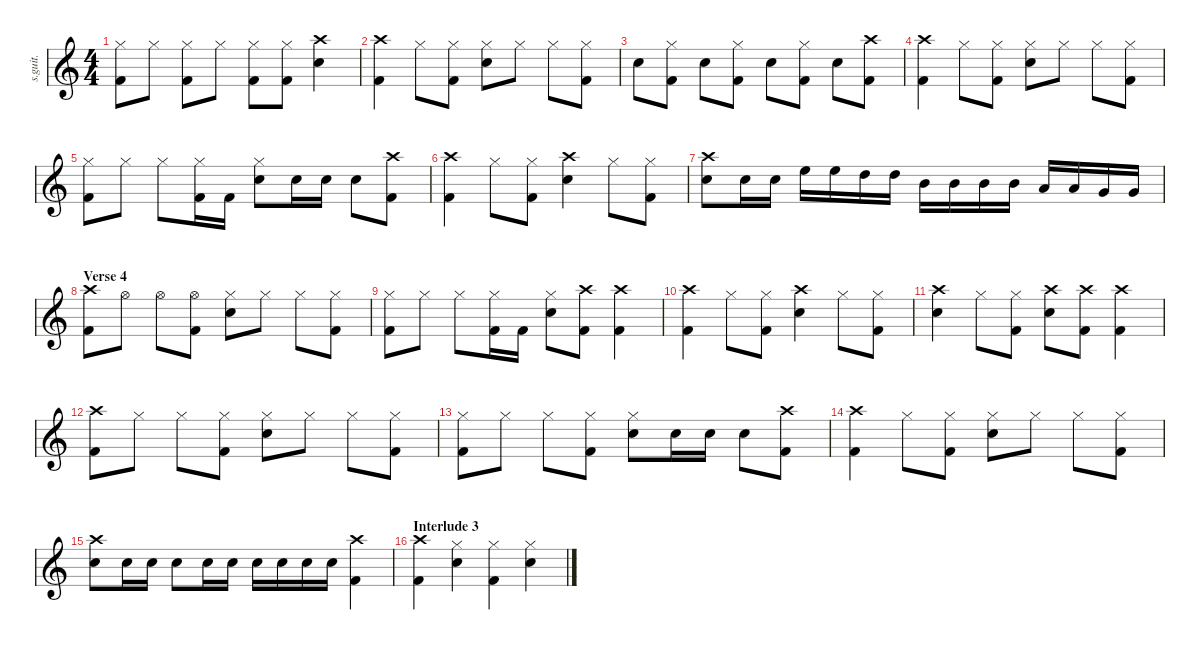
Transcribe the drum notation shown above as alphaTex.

\defaultSystemsLayout 4
\hideDynamics
\bracketExtendMode nobrackets
\track ("Lars Ulrich - Drumzzz" "s.guit.") {instrument percussion}
\staff {score}
\articulation defaults
\ts (4 4)
\tempo (142 hide)
\clef g2
\ks c
("Hi-Hat (closed)" "Kick (hit) 2").8{lyrics (0 "") lyrics (1 "") lyrics (2 "") lyrics (3 "") lyrics (4 "") dy f} "Hi-Hat (closed)".8{lyrics (0 "") lyrics (1 "") lyrics (2 "") lyrics (3 "") lyrics (4 "")} ("Hi-Hat (closed)" "Kick (hit) 2").8{lyrics (0 "") lyrics (1 "") lyrics (2 "") lyrics (3 "") lyrics (4 "")} "Hi-Hat (closed)".8{lyrics (0 "") lyrics (1 "") lyrics (2 "") lyrics (3 "") lyrics (4 "")} ("Hi-Hat (closed)" "Kick (hit) 2").8{lyrics (0 "") lyrics (1 "") lyrics (2 "") lyrics (3 "") lyrics (4 "")} ("Hi-Hat (closed)" "Kick (hit) 2").8{lyrics (0 "") lyrics (1 "") lyrics (2 "") lyrics (3 "") lyrics (4 "")} ("Crash high (hit)" "Snare (hit) 2").4{lyrics (0 "") lyrics (1 "") lyrics (2 "") lyrics (3 "") lyrics (4 "")} |
("Crash high (hit)" "Kick (hit) 2").4{lyrics (0 "") lyrics (1 "") lyrics (2 "") lyrics (3 "") lyrics (4 "")} "Hi-Hat (closed)".8{lyrics (0 "") lyrics (1 "") lyrics (2 "") lyrics (3 "") lyrics (4 "")} ("Hi-Hat (closed)" "Kick (hit) 2").8{lyrics (0 "") lyrics (1 "") lyrics (2 "") lyrics (3 "") lyrics (4 "")} ("Hi-Hat (closed)" "Snare (hit) 2").8{lyrics (0 "") lyrics (1 "") lyrics (2 "") lyrics (3 "") lyrics (4 "")} "Hi-Hat (closed)".8{lyrics (0 "") lyrics (1 "") lyrics (2 "") lyrics (3 "") lyrics (4 "")} "Hi-Hat (closed)".8{lyrics (0 "") lyrics (1 "") lyrics (2 "") lyrics (3 "") lyrics (4 "")} ("Hi-Hat (closed)" "Kick (hit) 2").8{lyrics (0 "") lyrics (1 "") lyrics (2 "") lyrics (3 "") lyrics (4 "")} |
"Snare (hit) 2".8{lyrics (0 "") lyrics (1 "") lyrics (2 "") lyrics (3 "") lyrics (4 "")} ("Hi-Hat (closed)" "Kick (hit) 2").8{lyrics (0 "") lyrics (1 "") lyrics (2 "") lyrics (3 "") lyrics (4 "")} "Snare (hit) 2".8{lyrics (0 "") lyrics (1 "") lyrics (2 "") lyrics (3 "") lyrics (4 "")} ("Hi-Hat (closed)" "Kick (hit) 2").8{lyrics (0 "") lyrics (1 "") lyrics (2 "") lyrics (3 "") lyrics (4 "")} "Snare (hit) 2".8{lyrics (0 "") lyrics (1 "") lyrics (2 "") lyrics (3 "") lyrics (4 "")} ("Hi-Hat (closed)" "Kick (hit) 2").8{lyrics (0 "") lyrics (1 "") lyrics (2 "") lyrics (3 "") lyrics (4 "")} "Snare (hit) 2".8{lyrics (0 "") lyrics (1 "") lyrics (2 "") lyrics (3 "") lyrics (4 "")} ("Crash high (hit)" "Kick (hit) 2").8{lyrics (0 "") lyrics (1 "") lyrics (2 "") lyrics (3 "") lyrics (4 "")} |
("Crash high (hit)" "Kick (hit) 2").4{lyrics (0 "") lyrics (1 "") lyrics (2 "") lyrics (3 "") lyrics (4 "")} "Hi-Hat (closed)".8{lyrics (0 "") lyrics (1 "") lyrics (2 "") lyrics (3 "") lyrics (4 "")} ("Hi-Hat (closed)" "Kick (hit) 2").8{lyrics (0 "") lyrics (1 "") lyrics (2 "") lyrics (3 "") lyrics (4 "")} ("Hi-Hat (closed)" "Snare (hit) 2").8{lyrics (0 "") lyrics (1 "") lyrics (2 "") lyrics (3 "") lyrics (4 "")} "Hi-Hat (closed)".8{lyrics (0 "") lyrics (1 "") lyrics (2 "") lyrics (3 "") lyrics (4 "")} "Hi-Hat (closed)".8{lyrics (0 "") lyrics (1 "") lyrics (2 "") lyrics (3 "") lyrics (4 "")} ("Hi-Hat (closed)" "Kick (hit) 2").8{lyrics (0 "") lyrics (1 "") lyrics (2 "") lyrics (3 "") lyrics (4 "")} |
("Hi-Hat (closed)" "Kick (hit) 2").8{lyrics (0 "") lyrics (1 "") lyrics (2 "") lyrics (3 "") lyrics (4 "")} "Hi-Hat (closed)".8{lyrics (0 "") lyrics (1 "") lyrics (2 "") lyrics (3 "") lyrics (4 "")} "Hi-Hat (closed)".8{lyrics (0 "") lyrics (1 "") lyrics (2 "") lyrics (3 "") lyrics (4 "")} ("Hi-Hat (closed)" "Kick (hit) 2").16{lyrics (0 "") lyrics (1 "") lyrics (2 "") lyrics (3 "") lyrics (4 "")} "Kick (hit) 2".16{lyrics (0 "") lyrics (1 "") lyrics (2 "") lyrics (3 "") lyrics (4 "")} ("Hi-Hat (closed)" "Snare (hit) 2").8{lyrics (0 "") lyrics (1 "") lyrics (2 "") lyrics (3 "") lyrics (4 "")} "Snare (hit) 2".16{lyrics (0 "") lyrics (1 "") lyrics (2 "") lyrics (3 "") lyrics (4 "")} "Snare (hit) 2".16{lyrics (0 "") lyrics (1 "") lyrics (2 "") lyrics (3 "") lyrics (4 "")} "Snare (hit) 2".8{lyrics (0 "") lyrics (1 "") lyrics (2 "") lyrics (3 "") lyrics (4 "")} ("Crash high (hit)" "Kick (hit) 2").8{lyrics (0 "") lyrics (1 "") lyrics (2 "") lyrics (3 "") lyrics (4 "")} |
("Crash high (hit)" "Kick (hit) 2").4{lyrics (0 "") lyrics (1 "") lyrics (2 "") lyrics (3 "") lyrics (4 "")} "Hi-Hat (closed)".8{lyrics (0 "") lyrics (1 "") lyrics (2 "") lyrics (3 "") lyrics (4 "")} ("Hi-Hat (closed)" "Kick (hit) 2").8{lyrics (0 "") lyrics (1 "") lyrics (2 "") lyrics (3 "") lyrics (4 "")} ("Crash high (hit)" "Snare (hit) 2").4{lyrics (0 "") lyrics (1 "") lyrics (2 "") lyrics (3 "") lyrics (4 "")} "Hi-Hat (closed)".8{lyrics (0 "") lyrics (1 "") lyrics (2 "") lyrics (3 "") lyrics (4 "")} ("Hi-Hat (closed)" "Kick (hit) 2").8{lyrics (0 "") lyrics (1 "") lyrics (2 "") lyrics (3 "") lyrics (4 "")} |
("Crash high (hit)" "Snare (hit) 2").8{lyrics (0 "") lyrics (1 "") lyrics (2 "") lyrics (3 "") lyrics (4 "")} "Snare (hit) 2".16{lyrics (0 "") lyrics (1 "") lyrics (2 "") lyrics (3 "") lyrics (4 "")} "Snare (hit) 2".16{lyrics (0 "") lyrics (1 "") lyrics (2 "") lyrics (3 "") lyrics (4 "")} "High Floor Tom (hit)".16{lyrics (0 "") lyrics (1 "") lyrics (2 "") lyrics (3 "") lyrics (4 "")} "High Floor Tom (hit)".16{lyrics (0 "") lyrics (1 "") lyrics (2 "") lyrics (3 "") lyrics (4 "")} "High Tom (hit)".16{lyrics (0 "") lyrics (1 "") lyrics (2 "") lyrics (3 "") lyrics (4 "")} "High Tom (hit)".16{lyrics (0 "") lyrics (1 "") lyrics (2 "") lyrics (3 "") lyrics (4 "")} "Mid Tom (hit)".16{lyrics (0 "") lyrics (1 "") lyrics (2 "") lyrics (3 "") lyrics (4 "")} "Mid Tom (hit)".16{lyrics (0 "") lyrics (1 "") lyrics (2 "") lyrics (3 "") lyrics (4 "")} "Mid Tom (hit)".16{lyrics (0 "") lyrics (1 "") lyrics (2 "") lyrics (3 "") lyrics (4 "")} "Mid Tom (hit)".16{lyrics (0 "") lyrics (1 "") lyrics (2 "") lyrics (3 "") lyrics (4 "")} "Low Tom (hit)".16{lyrics (0 "") lyrics (1 "") lyrics (2 "") lyrics (3 "") lyrics (4 "")} "Low Tom (hit)".16{lyrics (0 "") lyrics (1 "") lyrics (2 "") lyrics (3 "") lyrics (4 "")} "Very Low Tom (hit)".16{lyrics (0 "") lyrics (1 "") lyrics (2 "") lyrics (3 "") lyrics (4 "")} "Very Low Tom (hit)".16{lyrics (0 "") lyrics (1 "") lyrics (2 "") lyrics (3 "") lyrics (4 "")} |
\section ("" "Verse 4")
("Crash high (hit)" "Kick (hit) 2").8{lyrics (0 "") lyrics (1 "") lyrics (2 "") lyrics (3 "") lyrics (4 "")} "Hi-Hat (open)".8{lyrics (0 "") lyrics (1 "") lyrics (2 "") lyrics (3 "") lyrics (4 "")} "Hi-Hat (open)".8{lyrics (0 "") lyrics (1 "") lyrics (2 "") lyrics (3 "") lyrics (4 "")} ("Hi-Hat (open)" "Kick (hit) 2").8{lyrics (0 "") lyrics (1 "") lyrics (2 "") lyrics (3 "") lyrics (4 "")} ("Hi-Hat (closed)" "Snare (hit) 2").8{lyrics (0 "") lyrics (1 "") lyrics (2 "") lyrics (3 "") lyrics (4 "")} "Hi-Hat (closed)".8{lyrics (0 "") lyrics (1 "") lyrics (2 "") lyrics (3 "") lyrics (4 "")} "Hi-Hat (closed)".8{lyrics (0 "") lyrics (1 "") lyrics (2 "") lyrics (3 "") lyrics (4 "")} ("Hi-Hat (closed)" "Kick (hit) 2").8{lyrics (0 "") lyrics (1 "") lyrics (2 "") lyrics (3 "") lyrics (4 "")} |
("Hi-Hat (closed)" "Kick (hit) 2").8{lyrics (0 "") lyrics (1 "") lyrics (2 "") lyrics (3 "") lyrics (4 "")} "Hi-Hat (closed)".8{lyrics (0 "") lyrics (1 "") lyrics (2 "") lyrics (3 "") lyrics (4 "")} "Hi-Hat (closed)".8{lyrics (0 "") lyrics (1 "") lyrics (2 "") lyrics (3 "") lyrics (4 "")} ("Hi-Hat (closed)" "Kick (hit) 2").16{lyrics (0 "") lyrics (1 "") lyrics (2 "") lyrics (3 "") lyrics (4 "")} "Kick (hit) 2".16{lyrics (0 "") lyrics (1 "") lyrics (2 "") lyrics (3 "") lyrics (4 "")} ("Hi-Hat (closed)" "Snare (hit) 2").8{lyrics (0 "") lyrics (1 "") lyrics (2 "") lyrics (3 "") lyrics (4 "")} ("Crash high (hit)" "Kick (hit) 2").8{lyrics (0 "") lyrics (1 "") lyrics (2 "") lyrics (3 "") lyrics (4 "")} ("Crash high (hit)" "Kick (hit) 2").4{lyrics (0 "") lyrics (1 "") lyrics (2 "") lyrics (3 "") lyrics (4 "")} |
("Crash high (hit)" "Kick (hit) 2").4{lyrics (0 "") lyrics (1 "") lyrics (2 "") lyrics (3 "") lyrics (4 "")} "Hi-Hat (closed)".8{lyrics (0 "") lyrics (1 "") lyrics (2 "") lyrics (3 "") lyrics (4 "")} ("Hi-Hat (closed)" "Kick (hit) 2").8{lyrics (0 "") lyrics (1 "") lyrics (2 "") lyrics (3 "") lyrics (4 "")} ("Crash high (hit)" "Snare (hit) 2").4{lyrics (0 "") lyrics (1 "") lyrics (2 "") lyrics (3 "") lyrics (4 "")} "Hi-Hat (closed)".8{lyrics (0 "") lyrics (1 "") lyrics (2 "") lyrics (3 "") lyrics (4 "")} ("Hi-Hat (closed)" "Kick (hit) 2").8{lyrics (0 "") lyrics (1 "") lyrics (2 "") lyrics (3 "") lyrics (4 "")} |
("Crash high (hit)" "Snare (hit) 2").4{lyrics (0 "") lyrics (1 "") lyrics (2 "") lyrics (3 "") lyrics (4 "")} "Hi-Hat (closed)".8{lyrics (0 "") lyrics (1 "") lyrics (2 "") lyrics (3 "") lyrics (4 "")} ("Hi-Hat (closed)" "Kick (hit) 2").8{lyrics (0 "") lyrics (1 "") lyrics (2 "") lyrics (3 "") lyrics (4 "")} ("Crash high (hit)" "Snare (hit) 2").8{lyrics (0 "") lyrics (1 "") lyrics (2 "") lyrics (3 "") lyrics (4 "")} ("Crash high (hit)" "Kick (hit) 2").8{lyrics (0 "") lyrics (1 "") lyrics (2 "") lyrics (3 "") lyrics (4 "")} ("Crash high (hit)" "Kick (hit) 2").4{lyrics (0 "") lyrics (1 "") lyrics (2 "") lyrics (3 "") lyrics (4 "")} |
("Crash high (hit)" "Kick (hit) 2").8{lyrics (0 "") lyrics (1 "") lyrics (2 "") lyrics (3 "") lyrics (4 "")} "Hi-Hat (closed)".8{lyrics (0 "") lyrics (1 "") lyrics (2 "") lyrics (3 "") lyrics (4 "")} "Hi-Hat (closed)".8{lyrics (0 "") lyrics (1 "") lyrics (2 "") lyrics (3 "") lyrics (4 "")} ("Hi-Hat (closed)" "Kick (hit) 2").8{lyrics (0 "") lyrics (1 "") lyrics (2 "") lyrics (3 "") lyrics (4 "")} ("Hi-Hat (closed)" "Snare (hit) 2").8{lyrics (0 "") lyrics (1 "") lyrics (2 "") lyrics (3 "") lyrics (4 "")} "Hi-Hat (closed)".8{lyrics (0 "") lyrics (1 "") lyrics (2 "") lyrics (3 "") lyrics (4 "")} "Hi-Hat (closed)".8{lyrics (0 "") lyrics (1 "") lyrics (2 "") lyrics (3 "") lyrics (4 "")} ("Hi-Hat (closed)" "Kick (hit) 2").8{lyrics (0 "") lyrics (1 "") lyrics (2 "") lyrics (3 "") lyrics (4 "")} |
("Hi-Hat (closed)" "Kick (hit) 2").8{lyrics (0 "") lyrics (1 "") lyrics (2 "") lyrics (3 "") lyrics (4 "")} "Hi-Hat (closed)".8{lyrics (0 "") lyrics (1 "") lyrics (2 "") lyrics (3 "") lyrics (4 "")} "Hi-Hat (closed)".8{lyrics (0 "") lyrics (1 "") lyrics (2 "") lyrics (3 "") lyrics (4 "")} ("Hi-Hat (closed)" "Kick (hit) 2").8{lyrics (0 "") lyrics (1 "") lyrics (2 "") lyrics (3 "") lyrics (4 "")} ("Hi-Hat (closed)" "Snare (hit) 2").8{lyrics (0 "") lyrics (1 "") lyrics (2 "") lyrics (3 "") lyrics (4 "")} "Snare (hit) 2".16{lyrics (0 "") lyrics (1 "") lyrics (2 "") lyrics (3 "") lyrics (4 "")} "Snare (hit) 2".16{lyrics (0 "") lyrics (1 "") lyrics (2 "") lyrics (3 "") lyrics (4 "")} "Snare (hit) 2".8{lyrics (0 "") lyrics (1 "") lyrics (2 "") lyrics (3 "") lyrics (4 "")} ("Crash high (hit)" "Kick (hit) 2").8{lyrics (0 "") lyrics (1 "") lyrics (2 "") lyrics (3 "") lyrics (4 "")} |
("Crash high (hit)" "Kick (hit) 2").4{lyrics (0 "") lyrics (1 "") lyrics (2 "") lyrics (3 "") lyrics (4 "")} "Hi-Hat (closed)".8{lyrics (0 "") lyrics (1 "") lyrics (2 "") lyrics (3 "") lyrics (4 "")} ("Hi-Hat (closed)" "Kick (hit) 2").8{lyrics (0 "") lyrics (1 "") lyrics (2 "") lyrics (3 "") lyrics (4 "")} ("Hi-Hat (closed)" "Snare (hit) 2").8{lyrics (0 "") lyrics (1 "") lyrics (2 "") lyrics (3 "") lyrics (4 "")} "Hi-Hat (closed)".8{lyrics (0 "") lyrics (1 "") lyrics (2 "") lyrics (3 "") lyrics (4 "")} "Hi-Hat (closed)".8{lyrics (0 "") lyrics (1 "") lyrics (2 "") lyrics (3 "") lyrics (4 "")} ("Hi-Hat (closed)" "Kick (hit) 2").8{lyrics (0 "") lyrics (1 "") lyrics (2 "") lyrics (3 "") lyrics (4 "")} |
("Crash high (hit)" "Snare (hit) 2").8{lyrics (0 "") lyrics (1 "") lyrics (2 "") lyrics (3 "") lyrics (4 "")} "Snare (hit) 2".16{lyrics (0 "") lyrics (1 "") lyrics (2 "") lyrics (3 "") lyrics (4 "")} "Snare (hit) 2".16{lyrics (0 "") lyrics (1 "") lyrics (2 "") lyrics (3 "") lyrics (4 "")} "Snare (hit) 2".8{lyrics (0 "") lyrics (1 "") lyrics (2 "") lyrics (3 "") lyrics (4 "")} "Snare (hit) 2".16{lyrics (0 "") lyrics (1 "") lyrics (2 "") lyrics (3 "") lyrics (4 "")} "Snare (hit) 2".16{lyrics (0 "") lyrics (1 "") lyrics (2 "") lyrics (3 "") lyrics (4 "")} "Snare (hit) 2".16{lyrics (0 "") lyrics (1 "") lyrics (2 "") lyrics (3 "") lyrics (4 "")} "Snare (hit) 2".16{lyrics (0 "") lyrics (1 "") lyrics (2 "") lyrics (3 "") lyrics (4 "")} "Snare (hit) 2".16{lyrics (0 "") lyrics (1 "") lyrics (2 "") lyrics (3 "") lyrics (4 "")} "Snare (hit) 2".16{lyrics (0 "") lyrics (1 "") lyrics (2 "") lyrics (3 "") lyrics (4 "")} ("Crash high (hit)" "Kick (hit) 2").4{lyrics (0 "") lyrics (1 "") lyrics (2 "") lyrics (3 "") lyrics (4 "")} |
\section ("" "Interlude 3")
("Crash high (hit)" "Kick (hit) 2").4{lyrics (0 "") lyrics (1 "") lyrics (2 "") lyrics (3 "") lyrics (4 "")} ("Hi-Hat (closed)" "Snare (hit) 2").4{lyrics (0 "") lyrics (1 "") lyrics (2 "") lyrics (3 "") lyrics (4 "")} ("Hi-Hat (closed)" "Kick (hit) 2").4{lyrics (0 "") lyrics (1 "") lyrics (2 "") lyrics (3 "") lyrics (4 "")} ("Hi-Hat (closed)" "Snare (hit) 2").4{lyrics (0 "") lyrics (1 "") lyrics (2 "") lyrics (3 "") lyrics (4 "")}
